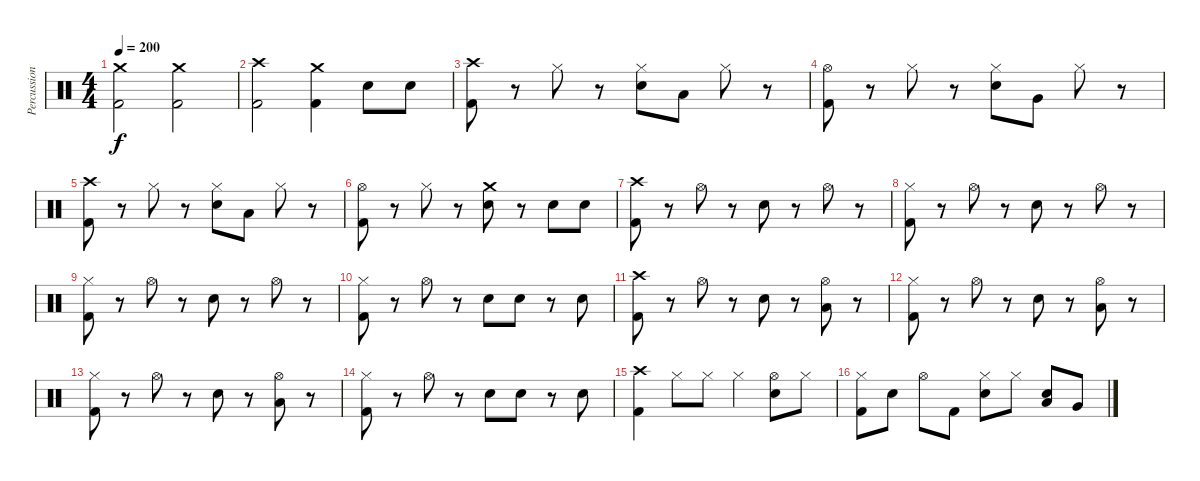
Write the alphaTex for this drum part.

\track ("Percussion" "Percussion") {instrument percussion}
\staff {score}
\articulation defaults
\ts (4 4)
\tempo 200
\clef neutral
\ks c
("Crash medium (hit)" "Kick (hit) 2").2{dy f} ("Crash medium (hit)" "Kick (hit) 2").2 |
("Crash high (hit)" "Kick (hit) 2").2 ("Crash medium (hit)" "Kick (hit) 2").4 "Snare (hit) 2".8 "Snare (hit) 2".8 |
("Crash high (hit)" "Kick (hit) 2").8 r.8 "Hi-Hat (closed)".8 r.8 ("Hi-Hat (closed)" "Snare (hit) 2").8 "Low Tom (hit)".8 "Hi-Hat (closed)".8 r.8 |
("Hi-Hat (open)" "Kick (hit) 2").8 r.8 "Hi-Hat (closed)".8 r.8 ("Hi-Hat (closed)" "Snare (hit) 2").8 "Very Low Tom (hit)".8 "Hi-Hat (closed)".8 r.8 |
("Crash high (hit)" "Kick (hit) 2").8 r.8 "Hi-Hat (closed)".8 r.8 ("Hi-Hat (closed)" "Snare (hit) 2").8 "Low Floor Tom (hit)".8 "Hi-Hat (closed)".8 r.8 |
("Hi-Hat (open)" "Kick (hit) 2").8 r.8 "Hi-Hat (closed)".8 r.8 ("Crash medium (hit)" "Snare (hit) 2").8 r.8 "Snare (hit) 2".8 "Snare (hit) 2".8 |
("Crash high (hit)" "Kick (hit) 2").8 r.8 "Hi-Hat (open)".8 r.8 "Snare (hit) 2".8 r.8 "Hi-Hat (open)".8 r.8 |
("Hi-Hat (closed)" "Kick (hit) 2").8 r.8 "Hi-Hat (open)".8 r.8 "Snare (hit) 2".8 r.8 "Hi-Hat (open)".8 r.8 |
("Hi-Hat (closed)" "Kick (hit) 2").8 r.8 "Hi-Hat (open)".8 r.8 "Snare (hit) 2".8 r.8 "Hi-Hat (open)".8 r.8 |
("Hi-Hat (closed)" "Kick (hit) 2").8 r.8 "Hi-Hat (open)".8 r.8 "Snare (hit) 2".8 "Snare (hit) 2".8 r.8 "Snare (hit) 2".8 |
("Crash high (hit)" "Kick (hit) 2").8 r.8 "Hi-Hat (open)".8 r.8 "Snare (hit) 2".8 r.8 ("Hi-Hat (open)" "Low Tom (hit)").8 r.8 |
("Hi-Hat (closed)" "Kick (hit) 2").8 r.8 "Hi-Hat (open)".8 r.8 "Snare (hit) 2".8 r.8 ("Hi-Hat (open)" "Low Tom (hit)").8 r.8 |
("Hi-Hat (closed)" "Kick (hit) 2").8 r.8 "Hi-Hat (open)".8 r.8 "Snare (hit) 2".8 r.8 ("Hi-Hat (open)" "Low Tom (hit)").8 r.8 |
("Hi-Hat (closed)" "Kick (hit) 2").8 r.8 "Hi-Hat (open)".8 r.8 "Snare (hit) 2".8 "Snare (hit) 2".8 r.8 "Snare (hit) 2".8 |
("Crash high (hit)" "Kick (hit) 2").4 "Hi-Hat (closed)".8 "Hi-Hat (closed)".8 "Hi-Hat (closed)".4 ("Hi-Hat (open)" "Snare (hit) 2").8 "Hi-Hat (closed)".8 |
("Hi-Hat (closed)" "Kick (hit) 2").8 "Snare (hit) 2".8 "Hi-Hat (open)".8 "Kick (hit) 2".8 ("Hi-Hat (closed)" "Snare (hit) 2").8 "Hi-Hat (closed)".8 ("Low Tom (hit)" "Snare (hit) 2").8 "Very Low Tom (hit)".8
